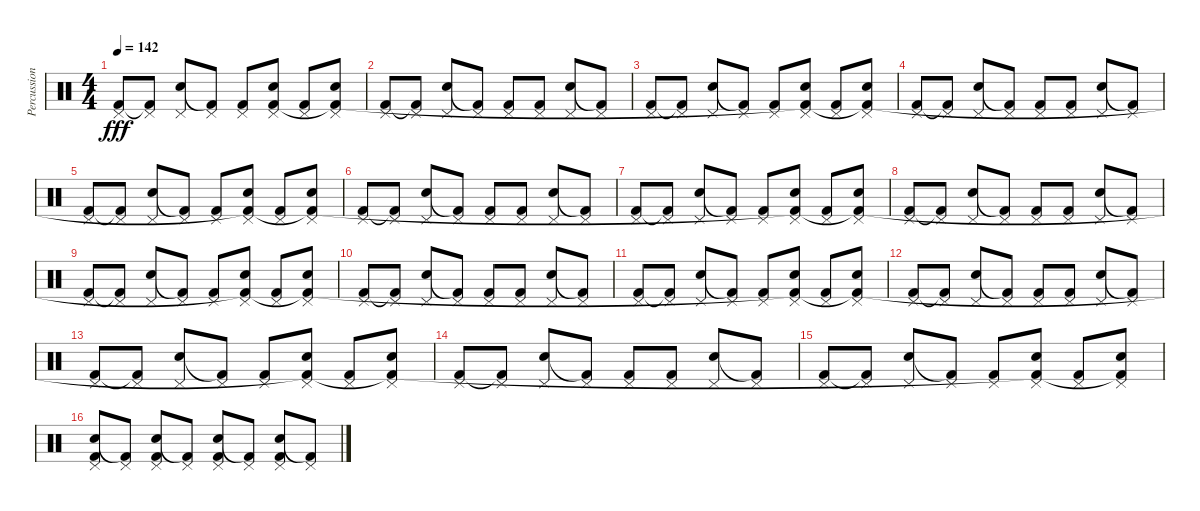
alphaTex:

\track ("Percussion" "Percussion") {instrument percussion}
\staff {score}
\articulation defaults
\ts (4 4)
\tempo 142
\clef neutral
\ks c
("Pedal Hi-Hat (hit)" "Kick (hit) 2").8{dy fff} ("Pedal Hi-Hat (hit)" "Kick (hit) 2"{t}).8 ("Pedal Hi-Hat (hit)" "Snare (hit) 2").8 ("Pedal Hi-Hat (hit)" "Kick (hit) 2"{t}).8 ("Pedal Hi-Hat (hit)" "Kick (hit) 2").8 ("Pedal Hi-Hat (hit)" "Snare (hit) 2" "Kick (hit) 2"{t}).8 ("Pedal Hi-Hat (hit)" "Kick (hit) 2").8 ("Pedal Hi-Hat (hit)" "Snare (hit) 2" "Kick (hit) 2"{t}).8 |
("Pedal Hi-Hat (hit)" "Kick (hit) 2").8 ("Pedal Hi-Hat (hit)" "Kick (hit) 2"{t}).8 ("Pedal Hi-Hat (hit)" "Snare (hit) 2").8 ("Pedal Hi-Hat (hit)" "Kick (hit) 2"{t}).8 ("Pedal Hi-Hat (hit)" "Kick (hit) 2").8 ("Pedal Hi-Hat (hit)" "Kick (hit) 2").8 ("Pedal Hi-Hat (hit)" "Snare (hit) 2").8 ("Pedal Hi-Hat (hit)" "Kick (hit) 2"{t}).8 |
("Pedal Hi-Hat (hit)" "Kick (hit) 2").8 ("Pedal Hi-Hat (hit)" "Kick (hit) 2"{t}).8 ("Pedal Hi-Hat (hit)" "Snare (hit) 2").8 ("Pedal Hi-Hat (hit)" "Kick (hit) 2"{t}).8 ("Pedal Hi-Hat (hit)" "Kick (hit) 2").8 ("Pedal Hi-Hat (hit)" "Snare (hit) 2" "Kick (hit) 2"{t}).8 ("Pedal Hi-Hat (hit)" "Kick (hit) 2").8 ("Pedal Hi-Hat (hit)" "Snare (hit) 2" "Kick (hit) 2"{t}).8 |
("Pedal Hi-Hat (hit)" "Kick (hit) 2").8 ("Pedal Hi-Hat (hit)" "Kick (hit) 2"{t}).8 ("Pedal Hi-Hat (hit)" "Snare (hit) 2").8 ("Pedal Hi-Hat (hit)" "Kick (hit) 2"{t}).8 ("Pedal Hi-Hat (hit)" "Kick (hit) 2").8 ("Pedal Hi-Hat (hit)" "Kick (hit) 2").8 ("Pedal Hi-Hat (hit)" "Snare (hit) 2").8 ("Pedal Hi-Hat (hit)" "Kick (hit) 2"{t}).8 |
("Pedal Hi-Hat (hit)" "Kick (hit) 2").8 ("Pedal Hi-Hat (hit)" "Kick (hit) 2"{t}).8 ("Pedal Hi-Hat (hit)" "Snare (hit) 2").8 ("Pedal Hi-Hat (hit)" "Kick (hit) 2"{t}).8 ("Pedal Hi-Hat (hit)" "Kick (hit) 2").8 ("Pedal Hi-Hat (hit)" "Snare (hit) 2" "Kick (hit) 2"{t}).8 ("Pedal Hi-Hat (hit)" "Kick (hit) 2").8 ("Pedal Hi-Hat (hit)" "Snare (hit) 2" "Kick (hit) 2"{t}).8 |
("Pedal Hi-Hat (hit)" "Kick (hit) 2").8 ("Pedal Hi-Hat (hit)" "Kick (hit) 2"{t}).8 ("Pedal Hi-Hat (hit)" "Snare (hit) 2").8 ("Pedal Hi-Hat (hit)" "Kick (hit) 2"{t}).8 ("Pedal Hi-Hat (hit)" "Kick (hit) 2").8 ("Pedal Hi-Hat (hit)" "Kick (hit) 2").8 ("Pedal Hi-Hat (hit)" "Snare (hit) 2").8 ("Pedal Hi-Hat (hit)" "Kick (hit) 2"{t}).8 |
("Pedal Hi-Hat (hit)" "Kick (hit) 2").8 ("Pedal Hi-Hat (hit)" "Kick (hit) 2"{t}).8 ("Pedal Hi-Hat (hit)" "Snare (hit) 2").8 ("Pedal Hi-Hat (hit)" "Kick (hit) 2"{t}).8 ("Pedal Hi-Hat (hit)" "Kick (hit) 2").8 ("Pedal Hi-Hat (hit)" "Snare (hit) 2" "Kick (hit) 2"{t}).8 ("Pedal Hi-Hat (hit)" "Kick (hit) 2").8 ("Pedal Hi-Hat (hit)" "Snare (hit) 2" "Kick (hit) 2"{t}).8 |
("Pedal Hi-Hat (hit)" "Kick (hit) 2").8 ("Pedal Hi-Hat (hit)" "Kick (hit) 2"{t}).8 ("Pedal Hi-Hat (hit)" "Snare (hit) 2").8 ("Pedal Hi-Hat (hit)" "Kick (hit) 2"{t}).8 ("Pedal Hi-Hat (hit)" "Kick (hit) 2").8 ("Pedal Hi-Hat (hit)" "Kick (hit) 2").8 ("Pedal Hi-Hat (hit)" "Snare (hit) 2").8 ("Pedal Hi-Hat (hit)" "Kick (hit) 2"{t}).8 |
("Pedal Hi-Hat (hit)" "Kick (hit) 2").8 ("Pedal Hi-Hat (hit)" "Kick (hit) 2"{t}).8 ("Pedal Hi-Hat (hit)" "Snare (hit) 2").8 ("Pedal Hi-Hat (hit)" "Kick (hit) 2"{t}).8 ("Pedal Hi-Hat (hit)" "Kick (hit) 2").8 ("Pedal Hi-Hat (hit)" "Snare (hit) 2" "Kick (hit) 2"{t}).8 ("Pedal Hi-Hat (hit)" "Kick (hit) 2").8 ("Pedal Hi-Hat (hit)" "Snare (hit) 2" "Kick (hit) 2"{t}).8 |
("Pedal Hi-Hat (hit)" "Kick (hit) 2").8 ("Pedal Hi-Hat (hit)" "Kick (hit) 2"{t}).8 ("Pedal Hi-Hat (hit)" "Snare (hit) 2").8 ("Pedal Hi-Hat (hit)" "Kick (hit) 2"{t}).8 ("Pedal Hi-Hat (hit)" "Kick (hit) 2").8 ("Pedal Hi-Hat (hit)" "Kick (hit) 2").8 ("Pedal Hi-Hat (hit)" "Snare (hit) 2").8 ("Pedal Hi-Hat (hit)" "Kick (hit) 2"{t}).8 |
("Pedal Hi-Hat (hit)" "Kick (hit) 2").8 ("Pedal Hi-Hat (hit)" "Kick (hit) 2"{t}).8 ("Pedal Hi-Hat (hit)" "Snare (hit) 2").8 ("Pedal Hi-Hat (hit)" "Kick (hit) 2"{t}).8 ("Pedal Hi-Hat (hit)" "Kick (hit) 2").8 ("Pedal Hi-Hat (hit)" "Snare (hit) 2" "Kick (hit) 2"{t}).8 ("Pedal Hi-Hat (hit)" "Kick (hit) 2").8 ("Pedal Hi-Hat (hit)" "Snare (hit) 2" "Kick (hit) 2"{t}).8 |
("Pedal Hi-Hat (hit)" "Kick (hit) 2").8 ("Pedal Hi-Hat (hit)" "Kick (hit) 2"{t}).8 ("Pedal Hi-Hat (hit)" "Snare (hit) 2").8 ("Pedal Hi-Hat (hit)" "Kick (hit) 2"{t}).8 ("Pedal Hi-Hat (hit)" "Kick (hit) 2").8 ("Pedal Hi-Hat (hit)" "Kick (hit) 2").8 ("Pedal Hi-Hat (hit)" "Snare (hit) 2").8 ("Pedal Hi-Hat (hit)" "Kick (hit) 2"{t}).8 |
("Pedal Hi-Hat (hit)" "Kick (hit) 2").8 ("Pedal Hi-Hat (hit)" "Kick (hit) 2"{t}).8 ("Pedal Hi-Hat (hit)" "Snare (hit) 2").8 ("Pedal Hi-Hat (hit)" "Kick (hit) 2"{t}).8 ("Pedal Hi-Hat (hit)" "Kick (hit) 2").8 ("Pedal Hi-Hat (hit)" "Snare (hit) 2" "Kick (hit) 2"{t}).8 ("Pedal Hi-Hat (hit)" "Kick (hit) 2").8 ("Pedal Hi-Hat (hit)" "Snare (hit) 2" "Kick (hit) 2"{t}).8 |
("Pedal Hi-Hat (hit)" "Kick (hit) 2").8 ("Pedal Hi-Hat (hit)" "Kick (hit) 2"{t}).8 ("Pedal Hi-Hat (hit)" "Snare (hit) 2").8 ("Pedal Hi-Hat (hit)" "Kick (hit) 2"{t}).8 ("Pedal Hi-Hat (hit)" "Kick (hit) 2").8 ("Pedal Hi-Hat (hit)" "Kick (hit) 2").8 ("Pedal Hi-Hat (hit)" "Snare (hit) 2").8 ("Pedal Hi-Hat (hit)" "Kick (hit) 2"{t}).8 |
("Pedal Hi-Hat (hit)" "Kick (hit) 2").8 ("Pedal Hi-Hat (hit)" "Kick (hit) 2"{t}).8 ("Pedal Hi-Hat (hit)" "Snare (hit) 2").8 ("Pedal Hi-Hat (hit)" "Kick (hit) 2"{t}).8 ("Pedal Hi-Hat (hit)" "Kick (hit) 2").8 ("Pedal Hi-Hat (hit)" "Snare (hit) 2" "Kick (hit) 2"{t}).8 ("Pedal Hi-Hat (hit)" "Kick (hit) 2").8 ("Pedal Hi-Hat (hit)" "Snare (hit) 2" "Kick (hit) 2"{t}).8 |
("Pedal Hi-Hat (hit)" "Snare (hit) 2" "Kick (hit) 2").8 ("Pedal Hi-Hat (hit)" "Kick (hit) 2"{t}).8 ("Pedal Hi-Hat (hit)" "Snare (hit) 2" "Kick (hit) 2").8 ("Pedal Hi-Hat (hit)" "Kick (hit) 2"{t}).8 ("Pedal Hi-Hat (hit)" "Snare (hit) 2" "Kick (hit) 2").8 ("Pedal Hi-Hat (hit)" "Kick (hit) 2"{t}).8 ("Pedal Hi-Hat (hit)" "Snare (hit) 2" "Kick (hit) 2").8 ("Pedal Hi-Hat (hit)" "Kick (hit) 2"{t}).8
